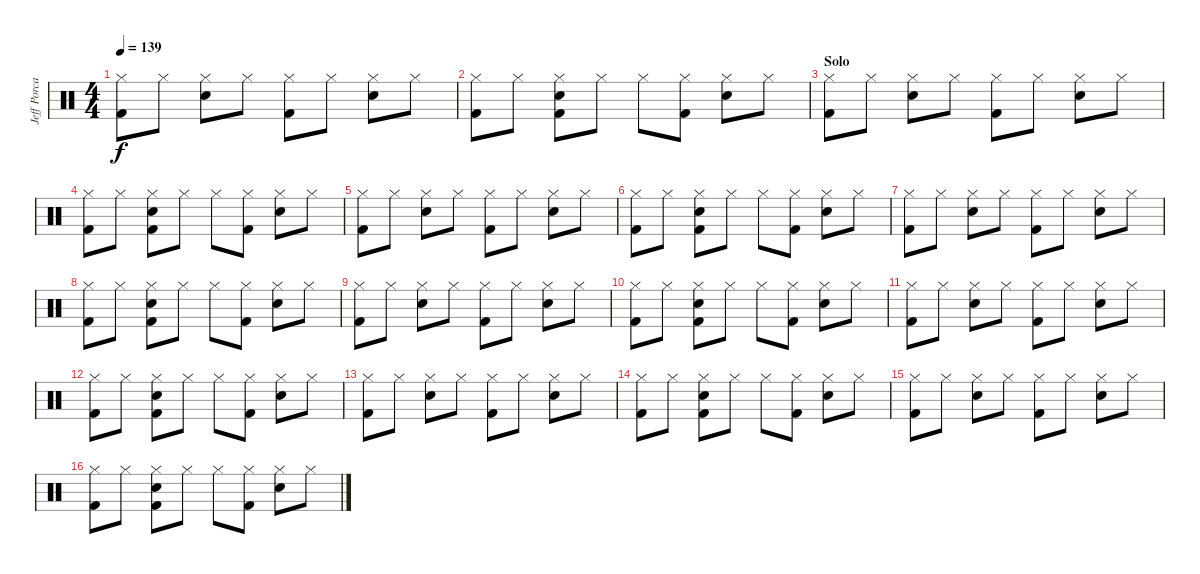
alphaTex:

\track ("Jeff Porcaro (Percussion)" "Jeff Porca") {instrument percussion}
\staff {score}
\articulation defaults
\ts (4 4)
\tempo 139
\clef neutral
\ks c
("Hi-Hat (closed)" "Kick (hit) 2").8{dy f} "Hi-Hat (closed)".8 ("Hi-Hat (closed)" "Snare (hit) 2").8 "Hi-Hat (closed)".8 ("Hi-Hat (closed)" "Kick (hit) 2").8 "Hi-Hat (closed)".8 ("Hi-Hat (closed)" "Snare (hit) 2").8 "Hi-Hat (closed)".8 |
("Hi-Hat (closed)" "Kick (hit) 2").8 "Hi-Hat (closed)".8 ("Hi-Hat (closed)" "Snare (hit) 2" "Kick (hit) 2").8 "Hi-Hat (closed)".8 "Hi-Hat (closed)".8 ("Hi-Hat (closed)" "Kick (hit) 2").8 ("Hi-Hat (closed)" "Snare (hit) 2").8 "Hi-Hat (closed)".8 |
\section ("" "Solo")
("Hi-Hat (closed)" "Kick (hit) 2").8 "Hi-Hat (closed)".8 ("Hi-Hat (closed)" "Snare (hit) 2").8 "Hi-Hat (closed)".8 ("Hi-Hat (closed)" "Kick (hit) 2").8 "Hi-Hat (closed)".8 ("Hi-Hat (closed)" "Snare (hit) 2").8 "Hi-Hat (closed)".8 |
("Hi-Hat (closed)" "Kick (hit) 2").8 "Hi-Hat (closed)".8 ("Hi-Hat (closed)" "Snare (hit) 2" "Kick (hit) 2").8 "Hi-Hat (closed)".8 "Hi-Hat (closed)".8 ("Hi-Hat (closed)" "Kick (hit) 2").8 ("Hi-Hat (closed)" "Snare (hit) 2").8 "Hi-Hat (closed)".8 |
("Hi-Hat (closed)" "Kick (hit) 2").8 "Hi-Hat (closed)".8 ("Hi-Hat (closed)" "Snare (hit) 2").8 "Hi-Hat (closed)".8 ("Hi-Hat (closed)" "Kick (hit) 2").8 "Hi-Hat (closed)".8 ("Hi-Hat (closed)" "Snare (hit) 2").8 "Hi-Hat (closed)".8 |
("Hi-Hat (closed)" "Kick (hit) 2").8 "Hi-Hat (closed)".8 ("Hi-Hat (closed)" "Snare (hit) 2" "Kick (hit) 2").8 "Hi-Hat (closed)".8 "Hi-Hat (closed)".8 ("Hi-Hat (closed)" "Kick (hit) 2").8 ("Hi-Hat (closed)" "Snare (hit) 2").8 "Hi-Hat (closed)".8 |
("Hi-Hat (closed)" "Kick (hit) 2").8 "Hi-Hat (closed)".8 ("Hi-Hat (closed)" "Snare (hit) 2").8 "Hi-Hat (closed)".8 ("Hi-Hat (closed)" "Kick (hit) 2").8 "Hi-Hat (closed)".8 ("Hi-Hat (closed)" "Snare (hit) 2").8 "Hi-Hat (closed)".8 |
("Hi-Hat (closed)" "Kick (hit) 2").8 "Hi-Hat (closed)".8 ("Hi-Hat (closed)" "Snare (hit) 2" "Kick (hit) 2").8 "Hi-Hat (closed)".8 "Hi-Hat (closed)".8 ("Hi-Hat (closed)" "Kick (hit) 2").8 ("Hi-Hat (closed)" "Snare (hit) 2").8 "Hi-Hat (closed)".8 |
("Hi-Hat (closed)" "Kick (hit) 2").8 "Hi-Hat (closed)".8 ("Hi-Hat (closed)" "Snare (hit) 2").8 "Hi-Hat (closed)".8 ("Hi-Hat (closed)" "Kick (hit) 2").8 "Hi-Hat (closed)".8 ("Hi-Hat (closed)" "Snare (hit) 2").8 "Hi-Hat (closed)".8 |
("Hi-Hat (closed)" "Kick (hit) 2").8 "Hi-Hat (closed)".8 ("Hi-Hat (closed)" "Snare (hit) 2" "Kick (hit) 2").8 "Hi-Hat (closed)".8 "Hi-Hat (closed)".8 ("Hi-Hat (closed)" "Kick (hit) 2").8 ("Hi-Hat (closed)" "Snare (hit) 2").8 "Hi-Hat (closed)".8 |
("Hi-Hat (closed)" "Kick (hit) 2").8 "Hi-Hat (closed)".8 ("Hi-Hat (closed)" "Snare (hit) 2").8 "Hi-Hat (closed)".8 ("Hi-Hat (closed)" "Kick (hit) 2").8 "Hi-Hat (closed)".8 ("Hi-Hat (closed)" "Snare (hit) 2").8 "Hi-Hat (closed)".8 |
("Hi-Hat (closed)" "Kick (hit) 2").8 "Hi-Hat (closed)".8 ("Hi-Hat (closed)" "Snare (hit) 2" "Kick (hit) 2").8 "Hi-Hat (closed)".8 "Hi-Hat (closed)".8 ("Hi-Hat (closed)" "Kick (hit) 2").8 ("Hi-Hat (closed)" "Snare (hit) 2").8 "Hi-Hat (closed)".8 |
("Hi-Hat (closed)" "Kick (hit) 2").8 "Hi-Hat (closed)".8 ("Hi-Hat (closed)" "Snare (hit) 2").8 "Hi-Hat (closed)".8 ("Hi-Hat (closed)" "Kick (hit) 2").8 "Hi-Hat (closed)".8 ("Hi-Hat (closed)" "Snare (hit) 2").8 "Hi-Hat (closed)".8 |
("Hi-Hat (closed)" "Kick (hit) 2").8 "Hi-Hat (closed)".8 ("Hi-Hat (closed)" "Snare (hit) 2" "Kick (hit) 2").8 "Hi-Hat (closed)".8 "Hi-Hat (closed)".8 ("Hi-Hat (closed)" "Kick (hit) 2").8 ("Hi-Hat (closed)" "Snare (hit) 2").8 "Hi-Hat (closed)".8 |
("Hi-Hat (closed)" "Kick (hit) 2").8 "Hi-Hat (closed)".8 ("Hi-Hat (closed)" "Snare (hit) 2").8 "Hi-Hat (closed)".8 ("Hi-Hat (closed)" "Kick (hit) 2").8 "Hi-Hat (closed)".8 ("Hi-Hat (closed)" "Snare (hit) 2").8 "Hi-Hat (closed)".8 |
("Hi-Hat (closed)" "Kick (hit) 2").8 "Hi-Hat (closed)".8 ("Hi-Hat (closed)" "Snare (hit) 2" "Kick (hit) 2").8 "Hi-Hat (closed)".8 "Hi-Hat (closed)".8 ("Hi-Hat (closed)" "Kick (hit) 2").8 ("Hi-Hat (closed)" "Snare (hit) 2").8 "Hi-Hat (closed)".8
